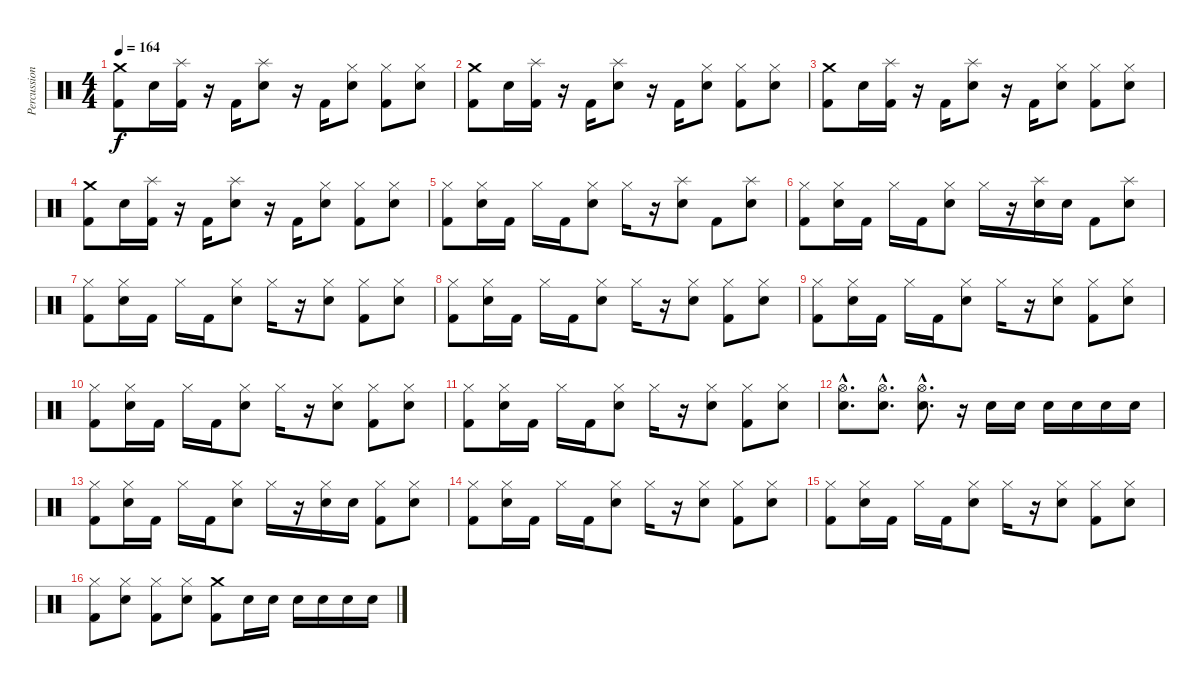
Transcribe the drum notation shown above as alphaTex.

\track ("Percussion" "Percussion") {instrument percussion}
\staff {score}
\articulation defaults
\ts (4 4)
\tempo 164
\clef neutral
\ks c
("Crash medium (hit)" "Kick (hit) 2").8{dy f} "Electric Snare (hit)".16 ("Splash (hit)" "Kick (hit) 2").16 r.16 "Kick (hit) 2".16 ("Splash (hit)" "Electric Snare (hit)").8 r.16 "Kick (hit) 2".16 ("Hi-Hat (closed)" "Electric Snare (hit)").8 ("Hi-Hat (closed)" "Kick (hit) 2").8 ("Hi-Hat (closed)" "Electric Snare (hit)").8 |
("Crash medium (hit)" "Kick (hit) 2").8 "Electric Snare (hit)".16 ("Splash (hit)" "Kick (hit) 2").16 r.16 "Kick (hit) 2".16 ("Splash (hit)" "Electric Snare (hit)").8 r.16 "Kick (hit) 2".16 ("Hi-Hat (closed)" "Electric Snare (hit)").8 ("Hi-Hat (closed)" "Kick (hit) 2").8 ("Hi-Hat (closed)" "Electric Snare (hit)").8 |
("Crash medium (hit)" "Kick (hit) 2").8 "Electric Snare (hit)".16 ("Splash (hit)" "Kick (hit) 2").16 r.16 "Kick (hit) 2".16 ("Splash (hit)" "Electric Snare (hit)").8 r.16 "Kick (hit) 2".16 ("Hi-Hat (closed)" "Electric Snare (hit)").8 ("Hi-Hat (closed)" "Kick (hit) 2").8 ("Hi-Hat (closed)" "Electric Snare (hit)").8 |
("Crash medium (hit)" "Kick (hit) 2").8 "Electric Snare (hit)".16 ("Splash (hit)" "Kick (hit) 2").16 r.16 "Kick (hit) 2".16 ("Splash (hit)" "Electric Snare (hit)").8 r.16 "Kick (hit) 2".16 ("Hi-Hat (closed)" "Electric Snare (hit)").8 ("Hi-Hat (closed)" "Kick (hit) 2").8 ("Hi-Hat (closed)" "Electric Snare (hit)").8 |
("Hi-Hat (closed)" "Kick (hit) 2").8 ("Hi-Hat (closed)" "Electric Snare (hit)").16 "Kick (hit) 2".16 "Hi-Hat (closed)".16 "Kick (hit) 2".16 ("Hi-Hat (closed)" "Electric Snare (hit)").8 "Hi-Hat (closed)".16 r.16 ("Splash (hit)" "Electric Snare (hit)").8 "Kick (hit) 2".8 ("Splash (hit)" "Electric Snare (hit)").8 |
("Hi-Hat (closed)" "Kick (hit) 2").8 ("Hi-Hat (closed)" "Electric Snare (hit)").16 "Kick (hit) 2".16 "Hi-Hat (closed)".16 "Kick (hit) 2".16 ("Hi-Hat (closed)" "Electric Snare (hit)").8 "Hi-Hat (closed)".16 r.16 ("Splash (hit)" "Electric Snare (hit)").16 "Electric Snare (hit)".16 "Kick (hit) 2".8 ("Splash (hit)" "Electric Snare (hit)").8 |
("Hi-Hat (closed)" "Kick (hit) 2").8 ("Hi-Hat (closed)" "Electric Snare (hit)").16 "Kick (hit) 2".16 "Hi-Hat (closed)".16 "Kick (hit) 2".16 ("Hi-Hat (closed)" "Electric Snare (hit)").8 "Hi-Hat (closed)".16 r.16 ("Hi-Hat (closed)" "Electric Snare (hit)").8 ("Hi-Hat (closed)" "Kick (hit) 2").8 ("Hi-Hat (closed)" "Electric Snare (hit)").8 |
("Hi-Hat (closed)" "Kick (hit) 2").8 ("Hi-Hat (closed)" "Electric Snare (hit)").16 "Kick (hit) 2".16 "Hi-Hat (closed)".16 "Kick (hit) 2".16 ("Hi-Hat (closed)" "Electric Snare (hit)").8 "Hi-Hat (closed)".16 r.16 ("Hi-Hat (closed)" "Electric Snare (hit)").8 ("Hi-Hat (closed)" "Kick (hit) 2").8 ("Hi-Hat (closed)" "Electric Snare (hit)").8 |
("Hi-Hat (closed)" "Kick (hit) 2").8 ("Hi-Hat (closed)" "Electric Snare (hit)").16 "Kick (hit) 2".16 "Hi-Hat (closed)".16 "Kick (hit) 2".16 ("Hi-Hat (closed)" "Electric Snare (hit)").8 "Hi-Hat (closed)".16 r.16 ("Hi-Hat (closed)" "Electric Snare (hit)").8 ("Hi-Hat (closed)" "Kick (hit) 2").8 ("Hi-Hat (closed)" "Electric Snare (hit)").8 |
("Hi-Hat (closed)" "Kick (hit) 2").8 ("Hi-Hat (closed)" "Electric Snare (hit)").16 "Kick (hit) 2".16 "Hi-Hat (closed)".16 "Kick (hit) 2".16 ("Hi-Hat (closed)" "Electric Snare (hit)").8 "Hi-Hat (closed)".16 r.16 ("Hi-Hat (closed)" "Electric Snare (hit)").8 ("Hi-Hat (closed)" "Kick (hit) 2").8 ("Hi-Hat (closed)" "Electric Snare (hit)").8 |
("Hi-Hat (closed)" "Kick (hit) 2").8 ("Hi-Hat (closed)" "Electric Snare (hit)").16 "Kick (hit) 2".16 "Hi-Hat (closed)".16 "Kick (hit) 2".16 ("Hi-Hat (closed)" "Electric Snare (hit)").8 "Hi-Hat (closed)".16 r.16 ("Hi-Hat (closed)" "Electric Snare (hit)").8 ("Hi-Hat (closed)" "Kick (hit) 2").8 ("Hi-Hat (closed)" "Electric Snare (hit)").8 |
("Hi-Hat (open)"{hac} "Electric Snare (hit)"{hac}).8{d} ("Hi-Hat (open)"{hac} "Electric Snare (hit)"{hac}).8{d} ("Hi-Hat (open)"{hac} "Electric Snare (hit)"{hac}).8{d} r.16 "Electric Snare (hit)".16 "Electric Snare (hit)".16 "Electric Snare (hit)".16 "Electric Snare (hit)".16 "Electric Snare (hit)".16 "Electric Snare (hit)".16 |
("Hi-Hat (closed)" "Kick (hit) 2").8 ("Hi-Hat (closed)" "Electric Snare (hit)").16 "Kick (hit) 2".16 "Hi-Hat (closed)".16 "Kick (hit) 2".16 ("Hi-Hat (closed)" "Electric Snare (hit)").8 "Hi-Hat (closed)".16 r.16 ("Hi-Hat (closed)" "Electric Snare (hit)").16 "Electric Snare (hit)".16 ("Hi-Hat (closed)" "Kick (hit) 2").8 ("Hi-Hat (closed)" "Electric Snare (hit)").8 |
("Hi-Hat (closed)" "Kick (hit) 2").8 ("Hi-Hat (closed)" "Electric Snare (hit)").16 "Kick (hit) 2".16 "Hi-Hat (closed)".16 "Kick (hit) 2".16 ("Hi-Hat (closed)" "Electric Snare (hit)").8 "Hi-Hat (closed)".16 r.16 ("Hi-Hat (closed)" "Electric Snare (hit)").8 ("Hi-Hat (closed)" "Kick (hit) 2").8 ("Hi-Hat (closed)" "Electric Snare (hit)").8 |
("Hi-Hat (closed)" "Kick (hit) 2").8 ("Hi-Hat (closed)" "Electric Snare (hit)").16 "Kick (hit) 2".16 "Hi-Hat (closed)".16 "Kick (hit) 2".16 ("Hi-Hat (closed)" "Electric Snare (hit)").8 "Hi-Hat (closed)".16 r.16 ("Hi-Hat (closed)" "Electric Snare (hit)").8 ("Hi-Hat (closed)" "Kick (hit) 2").8 ("Hi-Hat (closed)" "Electric Snare (hit)").8 |
("Hi-Hat (closed)" "Kick (hit) 2").8 ("Hi-Hat (closed)" "Electric Snare (hit)").8 ("Hi-Hat (closed)" "Kick (hit) 2").8 ("Hi-Hat (closed)" "Electric Snare (hit)").8 ("Crash medium (hit)" "Kick (hit) 2").8 "Electric Snare (hit)".16 "Electric Snare (hit)".16 "Electric Snare (hit)".16 "Electric Snare (hit)".16 "Electric Snare (hit)".16 "Electric Snare (hit)".16
